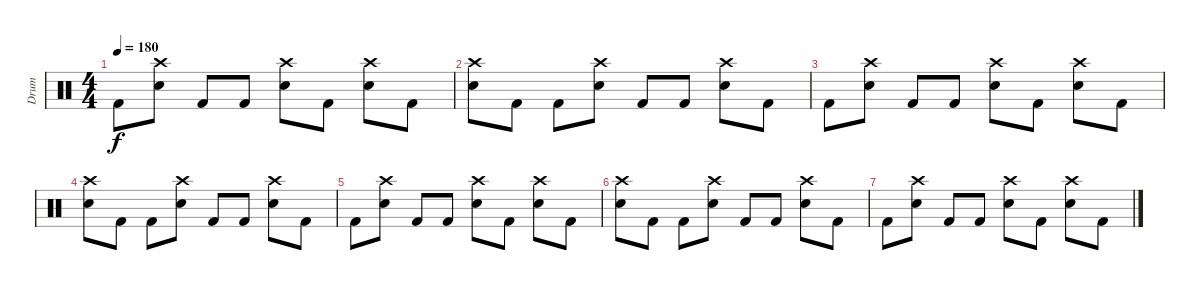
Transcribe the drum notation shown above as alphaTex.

\track ("Drum" "Drum") {instrument percussion}
\staff {score}
\articulation defaults
\ts (4 4)
\tempo 180
\clef neutral
\ks c "Kick (hit) 2".8{dy f}
("Crash high (hit)" "Electric Snare (hit)").8 "Kick (hit) 2".8 "Kick (hit) 2".8 ("Crash high (hit)" "Electric Snare (hit)").8 "Kick (hit) 2".8 ("Crash high (hit)" "Electric Snare (hit)").8 "Kick (hit) 2".8 |
("Crash high (hit)" "Electric Snare (hit)").8 "Kick (hit) 2".8 "Kick (hit) 2".8 ("Crash high (hit)" "Electric Snare (hit)").8 "Kick (hit) 2".8 "Kick (hit) 2".8 ("Crash high (hit)" "Electric Snare (hit)").8 "Kick (hit) 2".8 |
"Kick (hit) 2".8 ("Crash high (hit)" "Electric Snare (hit)").8 "Kick (hit) 2".8 "Kick (hit) 2".8 ("Crash high (hit)" "Electric Snare (hit)").8 "Kick (hit) 2".8 ("Crash high (hit)" "Electric Snare (hit)").8 "Kick (hit) 2".8 |
("Crash high (hit)" "Electric Snare (hit)").8 "Kick (hit) 2".8 "Kick (hit) 2".8 ("Crash high (hit)" "Electric Snare (hit)").8 "Kick (hit) 2".8 "Kick (hit) 2".8 ("Crash high (hit)" "Electric Snare (hit)").8 "Kick (hit) 2".8 |
"Kick (hit) 2".8 ("Crash high (hit)" "Electric Snare (hit)").8 "Kick (hit) 2".8 "Kick (hit) 2".8 ("Crash high (hit)" "Electric Snare (hit)").8 "Kick (hit) 2".8 ("Crash high (hit)" "Electric Snare (hit)").8 "Kick (hit) 2".8 |
("Crash high (hit)" "Electric Snare (hit)").8 "Kick (hit) 2".8 "Kick (hit) 2".8 ("Crash high (hit)" "Electric Snare (hit)").8 "Kick (hit) 2".8 "Kick (hit) 2".8 ("Crash high (hit)" "Electric Snare (hit)").8 "Kick (hit) 2".8 |
"Kick (hit) 2".8 ("Crash high (hit)" "Electric Snare (hit)").8 "Kick (hit) 2".8 "Kick (hit) 2".8 ("Crash high (hit)" "Electric Snare (hit)").8 "Kick (hit) 2".8 ("Crash high (hit)" "Electric Snare (hit)").8 "Kick (hit) 2".8
